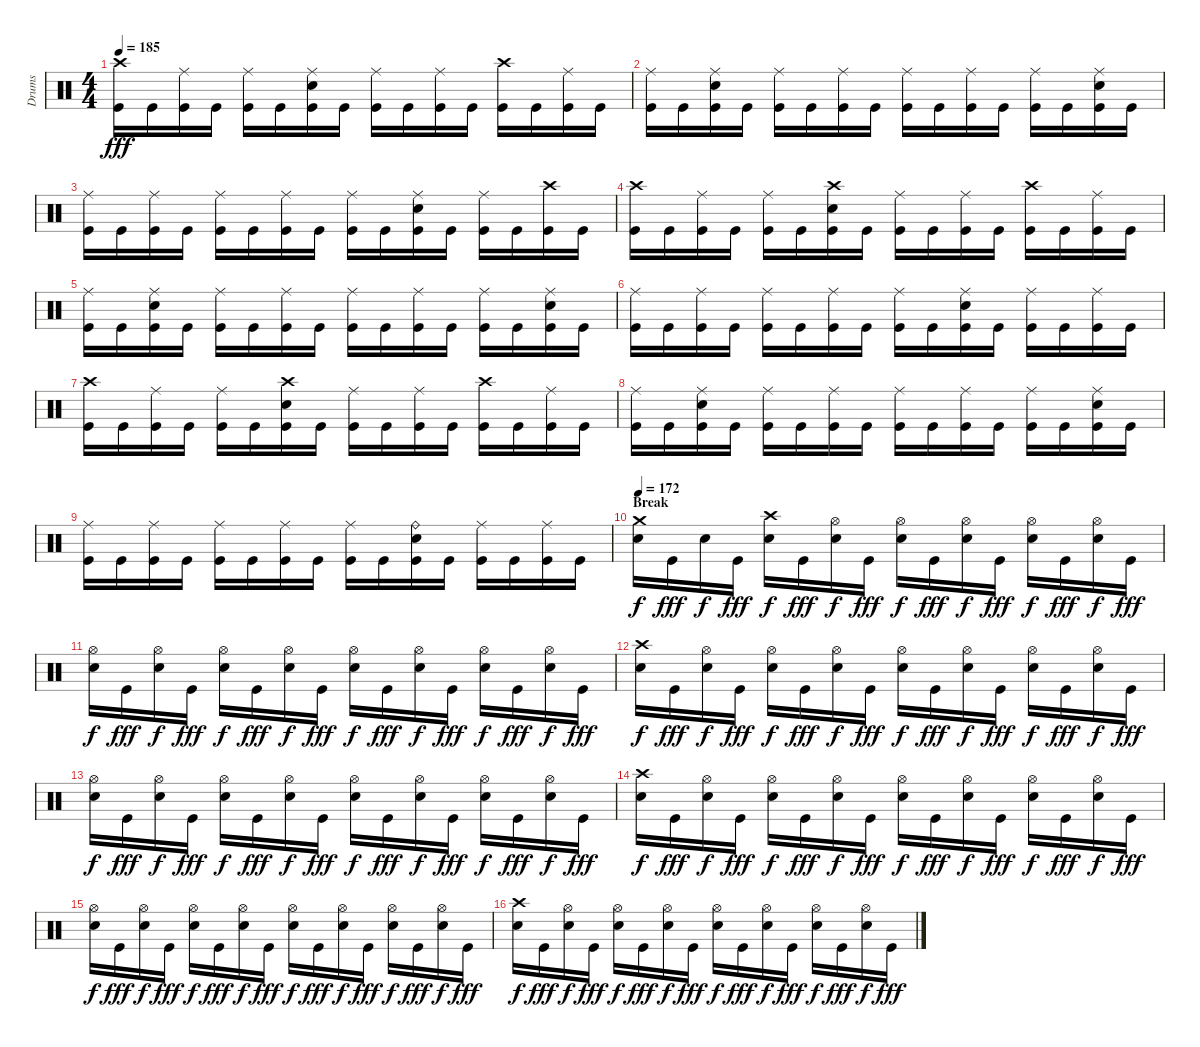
\track ("Drums" "Drums") {instrument percussion}
\staff {score}
\articulation defaults
\ts (4 4)
\tempo 185
\clef neutral
\ks c
("Crash high (hit)" "Kick (hit)").16{dy fff} "Kick (hit)".16 ("Ride (middle)" "Kick (hit)").16 "Kick (hit)".16 ("Ride (middle)" "Kick (hit)").16 "Kick (hit)".16 ("Ride (middle)" "Electric Snare (hit)" "Kick (hit)").16 "Kick (hit)".16 ("Ride (middle)" "Kick (hit)").16 "Kick (hit)".16 ("Ride (middle)" "Kick (hit)").16 "Kick (hit)".16 ("Crash high (hit)" "Kick (hit)").16 "Kick (hit)".16 ("Ride (middle)" "Kick (hit)").16 "Kick (hit)".16 |
("Ride (middle)" "Kick (hit)").16 "Kick (hit)".16 ("Ride (middle)" "Electric Snare (hit)" "Kick (hit)").16 "Kick (hit)".16 ("Ride (middle)" "Kick (hit)").16 "Kick (hit)".16 ("Ride (middle)" "Kick (hit)").16 "Kick (hit)".16 ("Ride (middle)" "Kick (hit)").16 "Kick (hit)".16 ("Ride (middle)" "Kick (hit)").16 "Kick (hit)".16 ("Ride (middle)" "Kick (hit)").16 "Kick (hit)".16 ("Ride (middle)" "Electric Snare (hit)" "Kick (hit)").16 "Kick (hit)".16 |
("Ride (middle)" "Kick (hit)").16 "Kick (hit)".16 ("Ride (middle)" "Kick (hit)").16 "Kick (hit)".16 ("Ride (middle)" "Kick (hit)").16 "Kick (hit)".16 ("Ride (middle)" "Kick (hit)").16 "Kick (hit)".16 ("Ride (middle)" "Kick (hit)").16 "Kick (hit)".16 ("Ride (middle)" "Electric Snare (hit)" "Kick (hit)").16 "Kick (hit)".16 ("Ride (middle)" "Kick (hit)").16 "Kick (hit)".16 ("Crash high (hit)" "Kick (hit)").16 "Kick (hit)".16 |
("Crash high (hit)" "Kick (hit)").16 "Kick (hit)".16 ("Ride (middle)" "Kick (hit)").16 "Kick (hit)".16 ("Ride (middle)" "Kick (hit)").16 "Kick (hit)".16 ("Crash high (hit)" "Electric Snare (hit)" "Kick (hit)").16 "Kick (hit)".16 ("Ride (middle)" "Kick (hit)").16 "Kick (hit)".16 ("Ride (middle)" "Kick (hit)").16 "Kick (hit)".16 ("Crash high (hit)" "Kick (hit)").16 "Kick (hit)".16 ("Ride (middle)" "Kick (hit)").16 "Kick (hit)".16 |
("Ride (middle)" "Kick (hit)").16 "Kick (hit)".16 ("Ride (middle)" "Electric Snare (hit)" "Kick (hit)").16 "Kick (hit)".16 ("Ride (middle)" "Kick (hit)").16 "Kick (hit)".16 ("Ride (middle)" "Kick (hit)").16 "Kick (hit)".16 ("Ride (middle)" "Kick (hit)").16 "Kick (hit)".16 ("Ride (middle)" "Kick (hit)").16 "Kick (hit)".16 ("Ride (middle)" "Kick (hit)").16 "Kick (hit)".16 ("Ride (middle)" "Electric Snare (hit)" "Kick (hit)").16 "Kick (hit)".16 |
("Ride (middle)" "Kick (hit)").16 "Kick (hit)".16 ("Ride (middle)" "Kick (hit)").16 "Kick (hit)".16 ("Ride (middle)" "Kick (hit)").16 "Kick (hit)".16 ("Ride (middle)" "Kick (hit)").16 "Kick (hit)".16 ("Ride (middle)" "Kick (hit)").16 "Kick (hit)".16 ("Ride (middle)" "Electric Snare (hit)" "Kick (hit)").16 "Kick (hit)".16 ("Ride (middle)" "Kick (hit)").16 "Kick (hit)".16 ("Ride (middle)" "Kick (hit)").16 "Kick (hit)".16 |
("Crash high (hit)" "Kick (hit)").16 "Kick (hit)".16 ("Ride (middle)" "Kick (hit)").16 "Kick (hit)".16 ("Ride (middle)" "Kick (hit)").16 "Kick (hit)".16 ("Crash high (hit)" "Electric Snare (hit)" "Kick (hit)").16 "Kick (hit)".16 ("Ride (middle)" "Kick (hit)").16 "Kick (hit)".16 ("Ride (middle)" "Kick (hit)").16 "Kick (hit)".16 ("Crash high (hit)" "Kick (hit)").16 "Kick (hit)".16 ("Ride (middle)" "Kick (hit)").16 "Kick (hit)".16 |
("Ride (middle)" "Kick (hit)").16 "Kick (hit)".16 ("Ride (middle)" "Electric Snare (hit)" "Kick (hit)").16 "Kick (hit)".16 ("Ride (middle)" "Kick (hit)").16 "Kick (hit)".16 ("Ride (middle)" "Kick (hit)").16 "Kick (hit)".16 ("Ride (middle)" "Kick (hit)").16 "Kick (hit)".16 ("Ride (middle)" "Kick (hit)").16 "Kick (hit)".16 ("Ride (middle)" "Kick (hit)").16 "Kick (hit)".16 ("Ride (middle)" "Electric Snare (hit)" "Kick (hit)").16 "Kick (hit)".16 |
("Ride (middle)" "Kick (hit)").16 "Kick (hit)".16 ("Ride (middle)" "Kick (hit)").16 "Kick (hit)".16 ("Ride (middle)" "Kick (hit)").16 "Kick (hit)".16 ("Ride (middle)" "Kick (hit)").16 "Kick (hit)".16 ("Ride (middle)" "Kick (hit)").16 "Kick (hit)".16 ("Ride (bell)" "Electric Snare (hit)" "Kick (hit)").16 "Kick (hit)".16 ("Ride (middle)" "Kick (hit)").16 "Kick (hit)".16 ("Ride (middle)" "Kick (hit)").16 "Kick (hit)".16 |
\section ("" "Break")
\tempo 172
("Crash medium (hit)" "Electric Snare (hit)").16{dy f} "Kick (hit)".16{dy fff} "Electric Snare (hit)".16{dy f} "Kick (hit)".16{dy fff} ("Crash high (hit)" "Electric Snare (hit)").16{dy f} "Kick (hit)".16{dy fff} ("Hi-Hat (open)" "Electric Snare (hit)").16{dy f} "Kick (hit)".16{dy fff} ("Hi-Hat (open)" "Electric Snare (hit)").16{dy f} "Kick (hit)".16{dy fff} ("Hi-Hat (open)" "Electric Snare (hit)").16{dy f} "Kick (hit)".16{dy fff} ("Hi-Hat (open)" "Electric Snare (hit)").16{dy f} "Kick (hit)".16{dy fff} ("Hi-Hat (open)" "Electric Snare (hit)").16{dy f} "Kick (hit)".16{dy fff} |
("Hi-Hat (open)" "Electric Snare (hit)").16{dy f} "Kick (hit)".16{dy fff} ("Hi-Hat (open)" "Electric Snare (hit)").16{dy f} "Kick (hit)".16{dy fff} ("Hi-Hat (open)" "Electric Snare (hit)").16{dy f} "Kick (hit)".16{dy fff} ("Hi-Hat (open)" "Electric Snare (hit)").16{dy f} "Kick (hit)".16{dy fff} ("Hi-Hat (open)" "Electric Snare (hit)").16{dy f} "Kick (hit)".16{dy fff} ("Hi-Hat (open)" "Electric Snare (hit)").16{dy f} "Kick (hit)".16{dy fff} ("Hi-Hat (open)" "Electric Snare (hit)").16{dy f} "Kick (hit)".16{dy fff} ("Hi-Hat (open)" "Electric Snare (hit)").16{dy f} "Kick (hit)".16{dy fff} |
("Crash high (hit)" "Electric Snare (hit)").16{dy f} "Kick (hit)".16{dy fff} ("Hi-Hat (open)" "Electric Snare (hit)").16{dy f} "Kick (hit)".16{dy fff} ("Hi-Hat (open)" "Electric Snare (hit)").16{dy f} "Kick (hit)".16{dy fff} ("Hi-Hat (open)" "Electric Snare (hit)").16{dy f} "Kick (hit)".16{dy fff} ("Hi-Hat (open)" "Electric Snare (hit)").16{dy f} "Kick (hit)".16{dy fff} ("Hi-Hat (open)" "Electric Snare (hit)").16{dy f} "Kick (hit)".16{dy fff} ("Hi-Hat (open)" "Electric Snare (hit)").16{dy f} "Kick (hit)".16{dy fff} ("Hi-Hat (open)" "Electric Snare (hit)").16{dy f} "Kick (hit)".16{dy fff} |
("Hi-Hat (open)" "Electric Snare (hit)").16{dy f} "Kick (hit)".16{dy fff} ("Hi-Hat (open)" "Electric Snare (hit)").16{dy f} "Kick (hit)".16{dy fff} ("Hi-Hat (open)" "Electric Snare (hit)").16{dy f} "Kick (hit)".16{dy fff} ("Hi-Hat (open)" "Electric Snare (hit)").16{dy f} "Kick (hit)".16{dy fff} ("Hi-Hat (open)" "Electric Snare (hit)").16{dy f} "Kick (hit)".16{dy fff} ("Hi-Hat (open)" "Electric Snare (hit)").16{dy f} "Kick (hit)".16{dy fff} ("Hi-Hat (open)" "Electric Snare (hit)").16{dy f} "Kick (hit)".16{dy fff} ("Hi-Hat (open)" "Electric Snare (hit)").16{dy f} "Kick (hit)".16{dy fff} |
("Crash high (hit)" "Electric Snare (hit)").16{dy f} "Kick (hit)".16{dy fff} ("Hi-Hat (open)" "Electric Snare (hit)").16{dy f} "Kick (hit)".16{dy fff} ("Hi-Hat (open)" "Electric Snare (hit)").16{dy f} "Kick (hit)".16{dy fff} ("Hi-Hat (open)" "Electric Snare (hit)").16{dy f} "Kick (hit)".16{dy fff} ("Hi-Hat (open)" "Electric Snare (hit)").16{dy f} "Kick (hit)".16{dy fff} ("Hi-Hat (open)" "Electric Snare (hit)").16{dy f} "Kick (hit)".16{dy fff} ("Hi-Hat (open)" "Electric Snare (hit)").16{dy f} "Kick (hit)".16{dy fff} ("Hi-Hat (open)" "Electric Snare (hit)").16{dy f} "Kick (hit)".16{dy fff} |
("Hi-Hat (open)" "Electric Snare (hit)").16{dy f} "Kick (hit)".16{dy fff} ("Hi-Hat (open)" "Electric Snare (hit)").16{dy f} "Kick (hit)".16{dy fff} ("Hi-Hat (open)" "Electric Snare (hit)").16{dy f} "Kick (hit)".16{dy fff} ("Hi-Hat (open)" "Electric Snare (hit)").16{dy f} "Kick (hit)".16{dy fff} ("Hi-Hat (open)" "Electric Snare (hit)").16{dy f} "Kick (hit)".16{dy fff} ("Hi-Hat (open)" "Electric Snare (hit)").16{dy f} "Kick (hit)".16{dy fff} ("Hi-Hat (open)" "Electric Snare (hit)").16{dy f} "Kick (hit)".16{dy fff} ("Hi-Hat (open)" "Electric Snare (hit)").16{dy f} "Kick (hit)".16{dy fff} |
("Crash high (hit)" "Electric Snare (hit)").16{dy f} "Kick (hit)".16{dy fff} ("Hi-Hat (open)" "Electric Snare (hit)").16{dy f} "Kick (hit)".16{dy fff} ("Hi-Hat (open)" "Electric Snare (hit)").16{dy f} "Kick (hit)".16{dy fff} ("Hi-Hat (open)" "Electric Snare (hit)").16{dy f} "Kick (hit)".16{dy fff} ("Hi-Hat (open)" "Electric Snare (hit)").16{dy f} "Kick (hit)".16{dy fff} ("Hi-Hat (open)" "Electric Snare (hit)").16{dy f} "Kick (hit)".16{dy fff} ("Hi-Hat (open)" "Electric Snare (hit)").16{dy f} "Kick (hit)".16{dy fff} ("Hi-Hat (open)" "Electric Snare (hit)").16{dy f} "Kick (hit)".16{dy fff}
